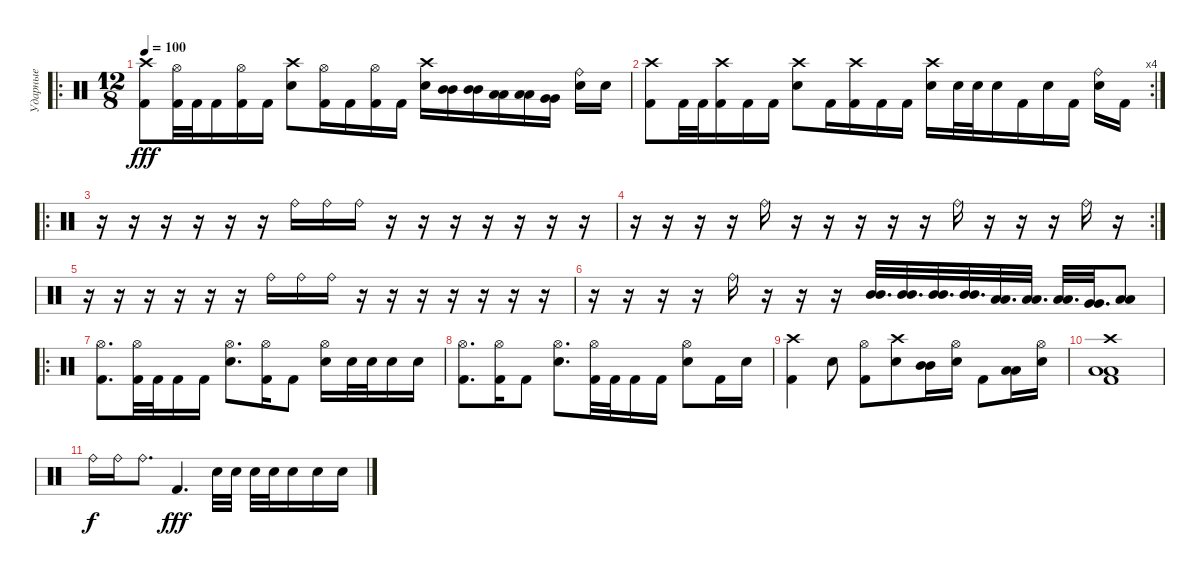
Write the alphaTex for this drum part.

\track ("Ударные" "Ударные") {instrument percussion}
\staff {score}
\articulation defaults
\ro
\ts (12 8)
\tempo 100
\clef neutral
\ks c
("Crash high (hit)" "Kick (hit) 2").8{dy fff} ("Hi-Hat (open)" "Kick (hit) 2").32 "Kick (hit) 2".32 "Kick (hit) 2".16 ("Hi-Hat (open)" "Kick (hit) 2").16 "Kick (hit) 2".16 ("Crash high (hit)" "Electric Snare (hit)").8 ("Hi-Hat (open)" "Kick (hit) 2").16 "Kick (hit) 2".16 ("Hi-Hat (open)" "Kick (hit) 2").16 "Kick (hit) 2".16 ("Crash high (hit)" "Electric Snare (hit)").16 ("Mid Tom (hit)" "Mid Tom (hit)").16 ("Mid Tom (hit)" "Mid Tom (hit)").16 ("Low Tom (hit)" "Low Tom (hit)").16 ("Low Tom (hit)" "Low Tom (hit)").16 ("Very Low Tom (hit)" "Very Low Tom (hit)").16 ("Ride (bell)" "Electric Snare (hit)").16 "Electric Snare (hit)".16 |
\rc 4
("Crash high (hit)" "Kick (hit) 2").8 "Kick (hit) 2".32 "Kick (hit) 2".32 ("Crash high (hit)" "Kick (hit) 2").16 "Kick (hit) 2".16 "Kick (hit) 2".16 ("Crash high (hit)" "Electric Snare (hit)").8 "Kick (hit) 2".16 ("Crash high (hit)" "Kick (hit) 2").16 "Kick (hit) 2".16 "Kick (hit) 2".16 ("Crash high (hit)" "Electric Snare (hit)").16 "Electric Snare (hit)".32 "Electric Snare (hit)".32 "Electric Snare (hit)".16 "Kick (hit) 2".16 "Electric Snare (hit)".16 "Kick (hit) 2".16 ("Ride (bell)" "Electric Snare (hit)").16 "Kick (hit) 2".16 |
\ro
r.16 r.16 r.16 r.16 r.16 r.16 "Ride (bell)".16 "Ride (bell)".16 "Ride (bell)".16 r.16 r.16 r.16 r.16 r.16 r.16 r.16 |
\rc 2
r.16 r.16 r.16 r.16 "Ride (bell)".16 r.16 r.16 r.16 r.16 r.16 "Ride (bell)".16 r.16 r.16 r.16 "Ride (bell)".16 r.16 |
r.16 r.16 r.16 r.16 r.16 r.16 "Ride (bell)".16 "Ride (bell)".16 "Ride (bell)".16 r.16 r.16 r.16 r.16 r.16 r.16 r.16 |
r.16 r.16 r.16 r.16 "Ride (bell)".16 r.16 r.16 r.16 ("Mid Tom (hit)" "Mid Tom (hit)").32{d} ("Mid Tom (hit)" "Mid Tom (hit)").32{d} ("Mid Tom (hit)" "Mid Tom (hit)").32{d} ("Mid Tom (hit)" "Mid Tom (hit)").32{d} ("Low Tom (hit)" "Low Tom (hit)").32{d} ("Low Tom (hit)" "Low Tom (hit)").32{d} ("Low Tom (hit)" "Low Tom (hit)").32{d} ("Very Low Tom (hit)" "Very Low Tom (hit)").32{d} ("Low Floor Tom (hit)" "Low Floor Tom (hit)").8 |
\ro
("Hi-Hat (open)" "Kick (hit) 2").8{d} ("Hi-Hat (open)" "Kick (hit) 2").32 "Kick (hit) 2".32 "Kick (hit) 2".16 "Kick (hit) 2".16 ("Hi-Hat (open)" "Electric Snare (hit)").8{d} ("Hi-Hat (open)" "Kick (hit) 2").16 "Kick (hit) 2".8 ("Hi-Hat (open)" "Electric Snare (hit)").16 "Electric Snare (hit)".32 "Electric Snare (hit)".32 "Electric Snare (hit)".16 "Electric Snare (hit)".16 |
("Hi-Hat (open)" "Kick (hit) 2").8{d} ("Hi-Hat (open)" "Kick (hit) 2").16 "Kick (hit) 2".8 ("Hi-Hat (open)" "Electric Snare (hit)").8{d} ("Hi-Hat (open)" "Kick (hit) 2").32 "Kick (hit) 2".32 "Kick (hit) 2".16 "Kick (hit) 2".16 ("Hi-Hat (open)" "Electric Snare (hit)").8 "Kick (hit) 2".16 "Electric Snare (hit)".16 |
("Crash high (hit)" "Kick (hit) 2").4 "Electric Snare (hit)".8 ("Hi-Hat (open)" "Kick (hit) 2").8 ("Crash high (hit)" "Electric Snare (hit)").8 ("Mid Tom (hit)" "Mid Tom (hit)").16 ("Hi-Hat (open)" "Electric Snare (hit)").16 "Kick (hit) 2".8 ("Low Tom (hit)" "Low Tom (hit)").16 ("Hi-Hat (open)" "Electric Snare (hit)").16 |
("Crash high (hit)" "Low Floor Tom (hit)" "Low Floor Tom (hit)" "Kick (hit) 2").1 |
"Ride (bell)".16{dy f} "Ride (bell)".16 "Ride (bell)".8{d} "Kick (hit) 2".4{d dy fff} "Electric Snare (hit)".32 "Electric Snare (hit)".32 "Electric Snare (hit)".32 "Electric Snare (hit)".32 "Electric Snare (hit)".16 "Electric Snare (hit)".16 "Electric Snare (hit)".16
